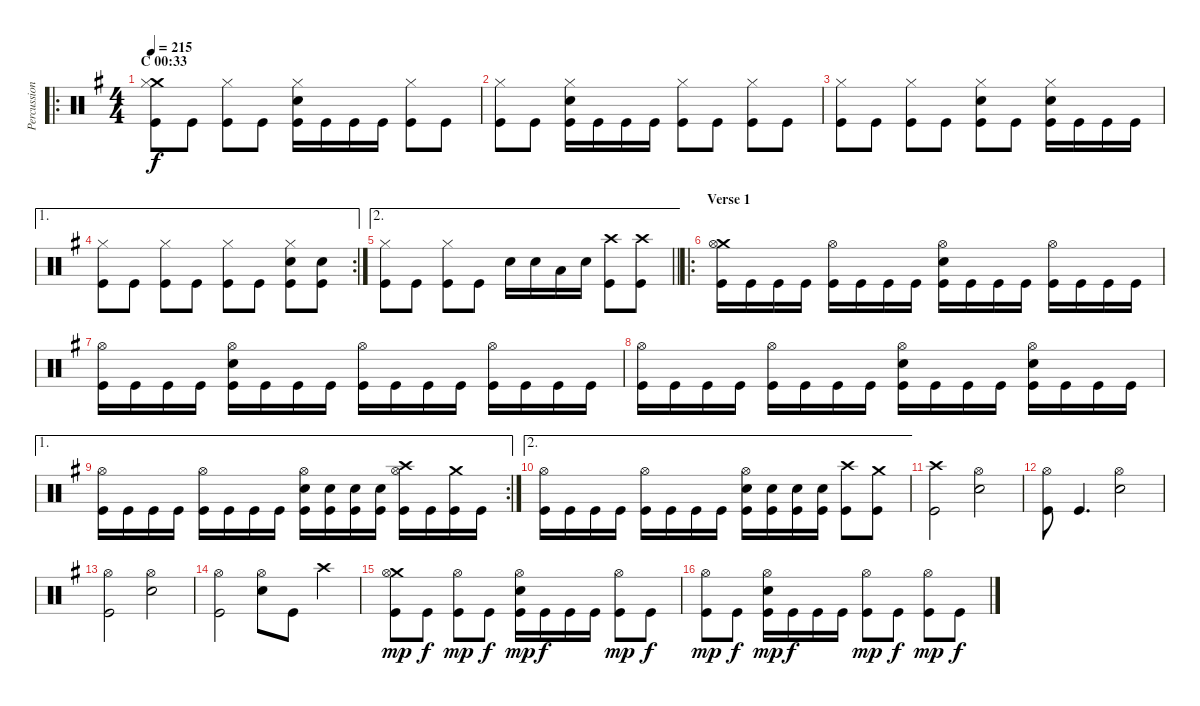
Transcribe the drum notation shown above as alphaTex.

\track ("Percussion" "Percussion") {instrument percussion}
\staff {score}
\articulation defaults
\ro
\ts (4 4)
\section ("" "C 00:33")
\tempo 215
\clef neutral
\ks eminor
("Crash medium (hit)" "Hi-Hat (closed)" "Kick (hit)").8{dy f} "Kick (hit)".8 ("Hi-Hat (closed)" "Kick (hit)").8 "Kick (hit)".8 ("Hi-Hat (closed)" "Snare (hit) 2" "Kick (hit)").16 "Kick (hit)".16 "Kick (hit)".16 "Kick (hit)".16 ("Hi-Hat (closed)" "Kick (hit)").8 "Kick (hit)".8 |
("Hi-Hat (closed)" "Kick (hit)").8 "Kick (hit)".8 ("Hi-Hat (closed)" "Snare (hit) 2" "Kick (hit)").16 "Kick (hit)".16 "Kick (hit)".16 "Kick (hit)".16 ("Hi-Hat (closed)" "Kick (hit)").8 "Kick (hit)".8 ("Hi-Hat (closed)" "Kick (hit)").8 "Kick (hit)".8 |
("Hi-Hat (closed)" "Kick (hit)").8 "Kick (hit)".8 ("Hi-Hat (closed)" "Kick (hit)").8 "Kick (hit)".8 ("Hi-Hat (closed)" "Snare (hit) 2" "Kick (hit)").8 "Kick (hit)".8 ("Hi-Hat (closed)" "Snare (hit) 2" "Kick (hit)").16 "Kick (hit)".16 "Kick (hit)".16 "Kick (hit)".16 |
\ae 1
\rc 2
("Hi-Hat (closed)" "Kick (hit)").8 "Kick (hit)".8 ("Hi-Hat (closed)" "Kick (hit)").8 "Kick (hit)".8 ("Hi-Hat (closed)" "Kick (hit)").8 "Kick (hit)".8 ("Hi-Hat (closed)" "Snare (hit) 2" "Kick (hit)").8 ("Snare (hit) 2" "Kick (hit)").8 |
\ae 2
\barLineRight lightlight
("Hi-Hat (closed)" "Kick (hit)").8 "Kick (hit)".8 ("Hi-Hat (closed)" "Kick (hit)").8 "Kick (hit)".8 "Snare (hit) 2".16 "Snare (hit) 2".16 "Low Tom (hit)".16 "Snare (hit) 2".16 ("Crash high (hit)" "Kick (hit)").8 ("Crash high (hit)" "Kick (hit)").8 |
\ro
\section ("" "Verse 1")
("Crash medium (hit)" "Hi-Hat (open)" "Kick (hit)").16 "Kick (hit)".16 "Kick (hit)".16 "Kick (hit)".16 ("Hi-Hat (open)" "Kick (hit)").16 "Kick (hit)".16 "Kick (hit)".16 "Kick (hit)".16 ("Hi-Hat (open)" "Snare (hit) 2" "Kick (hit)").16 "Kick (hit)".16 "Kick (hit)".16 "Kick (hit)".16 ("Hi-Hat (open)" "Kick (hit)").16 "Kick (hit)".16 "Kick (hit)".16 "Kick (hit)".16 |
("Hi-Hat (open)" "Kick (hit)").16 "Kick (hit)".16 "Kick (hit)".16 "Kick (hit)".16 ("Hi-Hat (open)" "Snare (hit) 2" "Kick (hit)").16 "Kick (hit)".16 "Kick (hit)".16 "Kick (hit)".16 ("Hi-Hat (open)" "Kick (hit)").16 "Kick (hit)".16 "Kick (hit)".16 "Kick (hit)".16 ("Hi-Hat (open)" "Kick (hit)").16 "Kick (hit)".16 "Kick (hit)".16 "Kick (hit)".16 |
("Hi-Hat (open)" "Kick (hit)").16 "Kick (hit)".16 "Kick (hit)".16 "Kick (hit)".16 ("Hi-Hat (open)" "Kick (hit)").16 "Kick (hit)".16 "Kick (hit)".16 "Kick (hit)".16 ("Hi-Hat (open)" "Snare (hit) 2" "Kick (hit)").16 "Kick (hit)".16 "Kick (hit)".16 "Kick (hit)".16 ("Hi-Hat (open)" "Snare (hit) 2" "Kick (hit)").16 "Kick (hit)".16 "Kick (hit)".16 "Kick (hit)".16 |
\ae 1
\rc 2
("Hi-Hat (open)" "Kick (hit)").16 "Kick (hit)".16 "Kick (hit)".16 "Kick (hit)".16 ("Hi-Hat (open)" "Kick (hit)").16 "Kick (hit)".16 "Kick (hit)".16 "Kick (hit)".16 ("Hi-Hat (open)" "Snare (hit) 2" "Kick (hit)").16 ("Snare (hit) 2" "Kick (hit)").16 ("Snare (hit) 2" "Kick (hit)").16 ("Snare (hit) 2" "Kick (hit)").16 ("Crash high (hit)" "Hi-Hat (open)" "Kick (hit)").16 "Kick (hit)".16 ("Crash medium (hit)" "Kick (hit)").16 "Kick (hit)".16 |
\ae 2
("Hi-Hat (open)" "Kick (hit)").16 "Kick (hit)".16 "Kick (hit)".16 "Kick (hit)".16 ("Hi-Hat (open)" "Kick (hit)").16 "Kick (hit)".16 "Kick (hit)".16 "Kick (hit)".16 ("Hi-Hat (open)" "Snare (hit) 2" "Kick (hit)").16 ("Snare (hit) 2" "Kick (hit)").16 ("Snare (hit) 2" "Kick (hit)").16 ("Snare (hit) 2" "Kick (hit)").16 ("Crash high (hit)" "Kick (hit)").8 ("Crash medium (hit)" "Kick (hit)").8 |
("Crash high (hit)" "Kick (hit)").2 ("Hi-Hat (open)" "Snare (hit) 2").2 |
("Hi-Hat (open)" "Kick (hit)").8 "Kick (hit)".4{d} ("Hi-Hat (open)" "Snare (hit) 2").2 |
("Hi-Hat (open)" "Kick (hit)").2 ("Hi-Hat (open)" "Snare (hit) 2").2 |
("Hi-Hat (open)" "Kick (hit)").2 ("Hi-Hat (open)" "Snare (hit) 2").8 "Kick (hit)".8 "Crash high (hit)".4 |
("Crash medium (hit)" "Hi-Hat (open)" "Kick (hit)").8{dy mp} "Kick (hit)".8{dy f} ("Hi-Hat (open)" "Kick (hit)").8{dy mp} "Kick (hit)".8{dy f} ("Hi-Hat (open)" "Snare (hit) 2" "Kick (hit)").16{dy mp} "Kick (hit)".16{dy f} "Kick (hit)".16 "Kick (hit)".16 ("Hi-Hat (open)" "Kick (hit)").8{dy mp} "Kick (hit)".8{dy f} |
("Hi-Hat (open)" "Kick (hit)").8{dy mp} "Kick (hit)".8{dy f} ("Hi-Hat (open)" "Snare (hit) 2" "Kick (hit)").16{dy mp} "Kick (hit)".16{dy f} "Kick (hit)".16 "Kick (hit)".16 ("Hi-Hat (open)" "Kick (hit)").8{dy mp} "Kick (hit)".8{dy f} ("Hi-Hat (open)" "Kick (hit)").8{dy mp} "Kick (hit)".8{dy f}
